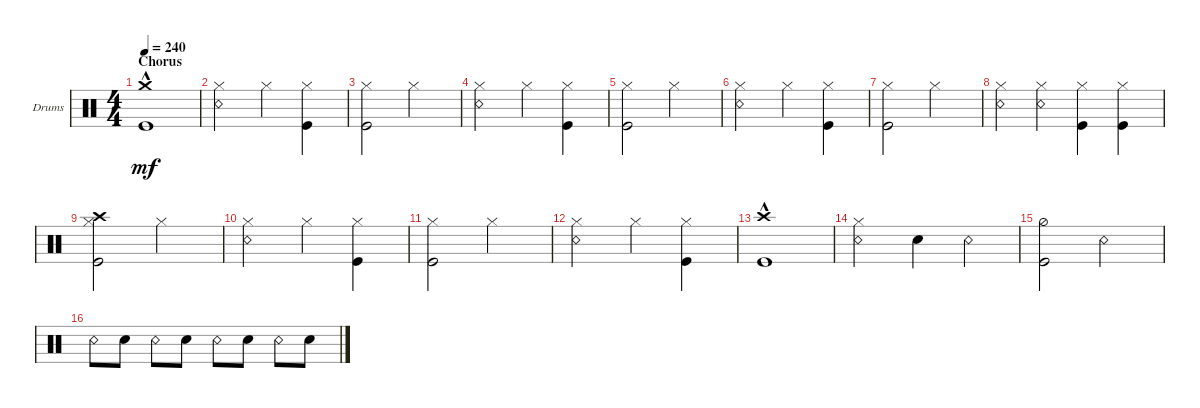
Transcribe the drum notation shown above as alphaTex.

\defaultSystemsLayout 4
\bracketExtendMode groupsimilarinstruments
\firstSystemTrackNameOrientation horizontal
\otherSystemsTrackNameOrientation horizontal
\track ("Drumkit" "Drums") {instrument percussion}
\staff {score}
\articulation defaults
\ts (4 4)
\section ("" "Chorus")
\tempo 240
\clef neutral
\ks c
("Crash medium (hit)"{hac} "Kick (hit)"{hac}).1{dy mf} |
("Snare (rim shot)" "Hi-Hat (closed)").2 "Hi-Hat (closed)".4 ("Kick (hit)" "Hi-Hat (closed)").4 |
("Kick (hit)" "Hi-Hat (closed)").2 "Hi-Hat (closed)".2 |
("Snare (rim shot)" "Hi-Hat (closed)").2 "Hi-Hat (closed)".4 ("Kick (hit)" "Hi-Hat (closed)").4 |
("Kick (hit)" "Hi-Hat (closed)").2 "Hi-Hat (closed)".2 |
("Snare (rim shot)" "Hi-Hat (closed)").2 "Hi-Hat (closed)".4 ("Kick (hit)" "Hi-Hat (closed)").4 |
("Kick (hit)" "Hi-Hat (closed)").2 "Hi-Hat (closed)".2 |
("Snare (rim shot)" "Hi-Hat (closed)").4 ("Snare (rim shot)" "Hi-Hat (closed)").4 ("Kick (hit)" "Hi-Hat (closed)").4 ("Kick (hit)" "Hi-Hat (closed)").4 |
("Kick (hit)" "Hi-Hat (closed)" "Crash high (hit)").2 "Hi-Hat (closed)".2 |
("Snare (rim shot)" "Hi-Hat (closed)").2 "Hi-Hat (closed)".4 ("Kick (hit)" "Hi-Hat (closed)").4 |
("Kick (hit)" "Hi-Hat (closed)").2 "Hi-Hat (closed)".2 |
("Snare (rim shot)" "Hi-Hat (closed)").2 "Hi-Hat (closed)".4 ("Kick (hit)" "Hi-Hat (closed)").4 |
("Crash high (hit)"{hac} "Kick (hit)"{hac}).1 |
("Snare (rim shot)" "Hi-Hat (closed)").2 "Snare (hit) 2".4 "Snare (rim shot)".4 |
("Kick (hit)" "Hi-Hat (half)").2 "Snare (rim shot)".2 |
"Snare (rim shot)".8 "Snare (hit) 2".8 "Snare (rim shot)".8 "Snare (hit) 2".8 "Snare (rim shot)".8 "Snare (hit) 2".8 "Snare (rim shot)".8 "Snare (hit) 2".8
